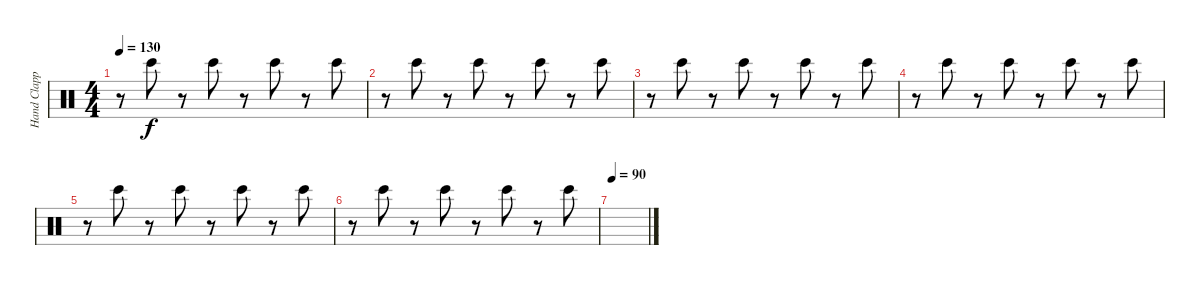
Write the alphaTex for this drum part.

\track ("Hand Clapping" "Hand Clapp") {instrument percussion}
\staff {score}
\articulation defaults
\ts (4 4)
\tempo 130
\clef neutral
\ks c
r.8{dy f} "Bongo High (hit)".8 r.8 "Bongo High (hit)".8 r.8 "Bongo High (hit)".8 r.8 "Bongo High (hit)".8 |
r.8 "Bongo High (hit)".8 r.8 "Bongo High (hit)".8 r.8 "Bongo High (hit)".8 r.8 "Bongo High (hit)".8 |
r.8 "Bongo High (hit)".8 r.8 "Bongo High (hit)".8 r.8 "Bongo High (hit)".8 r.8 "Bongo High (hit)".8 |
r.8 "Bongo High (hit)".8 r.8 "Bongo High (hit)".8 r.8 "Bongo High (hit)".8 r.8 "Bongo High (hit)".8 |
r.8 "Bongo High (hit)".8 r.8 "Bongo High (hit)".8 r.8 "Bongo High (hit)".8 r.8 "Bongo High (hit)".8 |
r.8 "Bongo High (hit)".8 r.8 "Bongo High (hit)".8 r.8 "Bongo High (hit)".8 r.8 "Bongo High (hit)".8 |
\tempo 90
